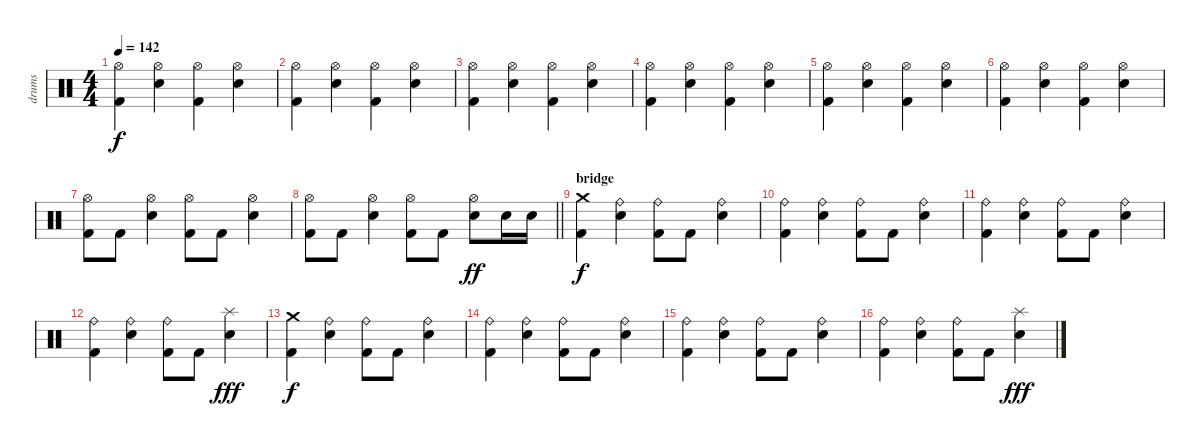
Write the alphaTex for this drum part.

\track ("drums" "drums") {instrument percussion}
\staff {score}
\articulation defaults
\ts (4 4)
\tempo 142
\clef neutral
\ks c
("Hi-Hat (open)" "Kick (hit) 2").4{dy f} ("Hi-Hat (open)" "Electric Snare (hit)").4 ("Hi-Hat (open)" "Kick (hit) 2").4 ("Hi-Hat (open)" "Electric Snare (hit)").4 |
("Hi-Hat (open)" "Kick (hit) 2").4 ("Hi-Hat (open)" "Electric Snare (hit)").4 ("Hi-Hat (open)" "Kick (hit) 2").4 ("Hi-Hat (open)" "Electric Snare (hit)").4 |
("Hi-Hat (open)" "Kick (hit) 2").4 ("Hi-Hat (open)" "Electric Snare (hit)").4 ("Hi-Hat (open)" "Kick (hit) 2").4 ("Hi-Hat (open)" "Electric Snare (hit)").4 |
("Hi-Hat (open)" "Kick (hit) 2").4 ("Hi-Hat (open)" "Electric Snare (hit)").4 ("Hi-Hat (open)" "Kick (hit) 2").4 ("Hi-Hat (open)" "Electric Snare (hit)").4 |
("Hi-Hat (open)" "Kick (hit) 2").4 ("Hi-Hat (open)" "Electric Snare (hit)").4 ("Hi-Hat (open)" "Kick (hit) 2").4 ("Hi-Hat (open)" "Electric Snare (hit)").4 |
("Hi-Hat (open)" "Kick (hit) 2").4 ("Hi-Hat (open)" "Electric Snare (hit)").4 ("Hi-Hat (open)" "Kick (hit) 2").4 ("Hi-Hat (open)" "Electric Snare (hit)").4 |
("Hi-Hat (open)" "Kick (hit) 2").8 "Kick (hit) 2".8 ("Hi-Hat (open)" "Electric Snare (hit)").4 ("Hi-Hat (open)" "Kick (hit) 2").8 "Kick (hit) 2".8 ("Hi-Hat (open)" "Electric Snare (hit)").4 |
\barLineRight lightlight
("Hi-Hat (open)" "Kick (hit) 2").8 "Kick (hit) 2".8 ("Hi-Hat (open)" "Electric Snare (hit)").4 ("Hi-Hat (open)" "Kick (hit) 2").8 "Kick (hit) 2".8 ("Hi-Hat (open)" "Electric Snare (hit)").8{dy ff} "Electric Snare (hit)".16 "Electric Snare (hit)".16 |
\section ("" "bridge")
("Crash medium (hit)" "Kick (hit) 2").4{dy f volume 10} ("Ride (bell)" "Electric Snare (hit)").4 ("Ride (bell)" "Kick (hit) 2").8 "Kick (hit) 2".8 ("Ride (bell)" "Electric Snare (hit)").4 |
("Ride (bell)" "Kick (hit) 2").4 ("Ride (bell)" "Electric Snare (hit)").4 ("Ride (bell)" "Kick (hit) 2").8 "Kick (hit) 2".8 ("Ride (bell)" "Electric Snare (hit)").4 |
("Ride (bell)" "Kick (hit) 2").4 ("Ride (bell)" "Electric Snare (hit)").4 ("Ride (bell)" "Kick (hit) 2").8 "Kick (hit) 2".8 ("Ride (bell)" "Electric Snare (hit)").4 |
("Ride (bell)" "Kick (hit) 2").4 ("Ride (bell)" "Electric Snare (hit)").4 ("Ride (bell)" "Kick (hit) 2").8 "Kick (hit) 2".8 ("Splash (hit)" "Electric Snare (hit)").4{dy fff} |
("Crash medium (hit)" "Kick (hit) 2").4{dy f} ("Ride (bell)" "Electric Snare (hit)").4 ("Ride (bell)" "Kick (hit) 2").8 "Kick (hit) 2".8 ("Ride (bell)" "Electric Snare (hit)").4 |
("Ride (bell)" "Kick (hit) 2").4 ("Ride (bell)" "Electric Snare (hit)").4 ("Ride (bell)" "Kick (hit) 2").8 "Kick (hit) 2".8 ("Ride (bell)" "Electric Snare (hit)").4 |
("Ride (bell)" "Kick (hit) 2").4 ("Ride (bell)" "Electric Snare (hit)").4 ("Ride (bell)" "Kick (hit) 2").8 "Kick (hit) 2".8 ("Ride (bell)" "Electric Snare (hit)").4 |
("Ride (bell)" "Kick (hit) 2").4 ("Ride (bell)" "Electric Snare (hit)").4 ("Ride (bell)" "Kick (hit) 2").8 "Kick (hit) 2".8 ("Splash (hit)" "Electric Snare (hit)").4{dy fff}
